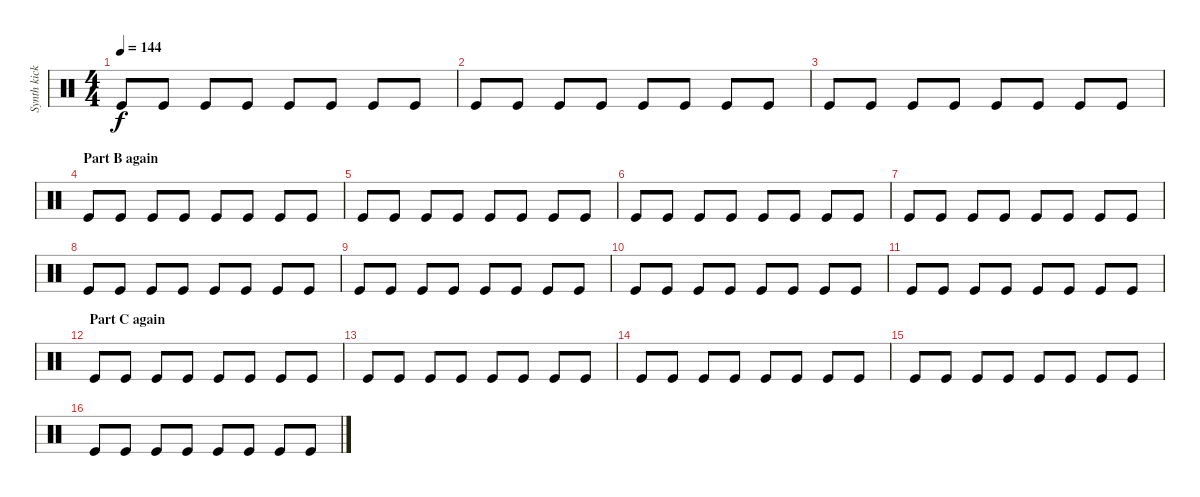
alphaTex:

\track ("Synth kick loop" "Synth kick") {instrument percussion}
\staff {score}
\articulation defaults
\ts (4 4)
\tempo 144
\clef neutral
\ks c "Kick (hit)".8{dy f} "Kick (hit)".8 "Kick (hit)".8 "Kick (hit)".8 "Kick (hit)".8 "Kick (hit)".8 "Kick (hit)".8 "Kick (hit)".8
|
"Kick (hit)".8 "Kick (hit)".8 "Kick (hit)".8 "Kick (hit)".8 "Kick (hit)".8 "Kick (hit)".8 "Kick (hit)".8 "Kick (hit)".8 |
"Kick (hit)".8 "Kick (hit)".8 "Kick (hit)".8 "Kick (hit)".8 "Kick (hit)".8 "Kick (hit)".8 "Kick (hit)".8 "Kick (hit)".8 |
\section ("" "Part B again")
"Kick (hit)".8 "Kick (hit)".8 "Kick (hit)".8 "Kick (hit)".8 "Kick (hit)".8 "Kick (hit)".8 "Kick (hit)".8 "Kick (hit)".8 |
"Kick (hit)".8 "Kick (hit)".8 "Kick (hit)".8 "Kick (hit)".8 "Kick (hit)".8 "Kick (hit)".8 "Kick (hit)".8 "Kick (hit)".8 |
"Kick (hit)".8 "Kick (hit)".8 "Kick (hit)".8 "Kick (hit)".8 "Kick (hit)".8 "Kick (hit)".8 "Kick (hit)".8 "Kick (hit)".8 |
"Kick (hit)".8 "Kick (hit)".8 "Kick (hit)".8 "Kick (hit)".8 "Kick (hit)".8 "Kick (hit)".8 "Kick (hit)".8 "Kick (hit)".8 |
"Kick (hit)".8 "Kick (hit)".8 "Kick (hit)".8 "Kick (hit)".8 "Kick (hit)".8 "Kick (hit)".8 "Kick (hit)".8 "Kick (hit)".8 |
"Kick (hit)".8 "Kick (hit)".8 "Kick (hit)".8 "Kick (hit)".8 "Kick (hit)".8 "Kick (hit)".8 "Kick (hit)".8 "Kick (hit)".8 |
"Kick (hit)".8 "Kick (hit)".8 "Kick (hit)".8 "Kick (hit)".8 "Kick (hit)".8 "Kick (hit)".8 "Kick (hit)".8 "Kick (hit)".8 |
"Kick (hit)".8 "Kick (hit)".8 "Kick (hit)".8 "Kick (hit)".8 "Kick (hit)".8 "Kick (hit)".8 "Kick (hit)".8 "Kick (hit)".8 |
\section ("" "Part C again")
"Kick (hit)".8 "Kick (hit)".8 "Kick (hit)".8 "Kick (hit)".8 "Kick (hit)".8 "Kick (hit)".8 "Kick (hit)".8 "Kick (hit)".8 |
"Kick (hit)".8 "Kick (hit)".8 "Kick (hit)".8 "Kick (hit)".8 "Kick (hit)".8 "Kick (hit)".8 "Kick (hit)".8 "Kick (hit)".8 |
"Kick (hit)".8 "Kick (hit)".8 "Kick (hit)".8 "Kick (hit)".8 "Kick (hit)".8 "Kick (hit)".8 "Kick (hit)".8 "Kick (hit)".8 |
"Kick (hit)".8 "Kick (hit)".8 "Kick (hit)".8 "Kick (hit)".8 "Kick (hit)".8 "Kick (hit)".8 "Kick (hit)".8 "Kick (hit)".8 |
"Kick (hit)".8 "Kick (hit)".8 "Kick (hit)".8 "Kick (hit)".8 "Kick (hit)".8 "Kick (hit)".8 "Kick (hit)".8 "Kick (hit)".8
